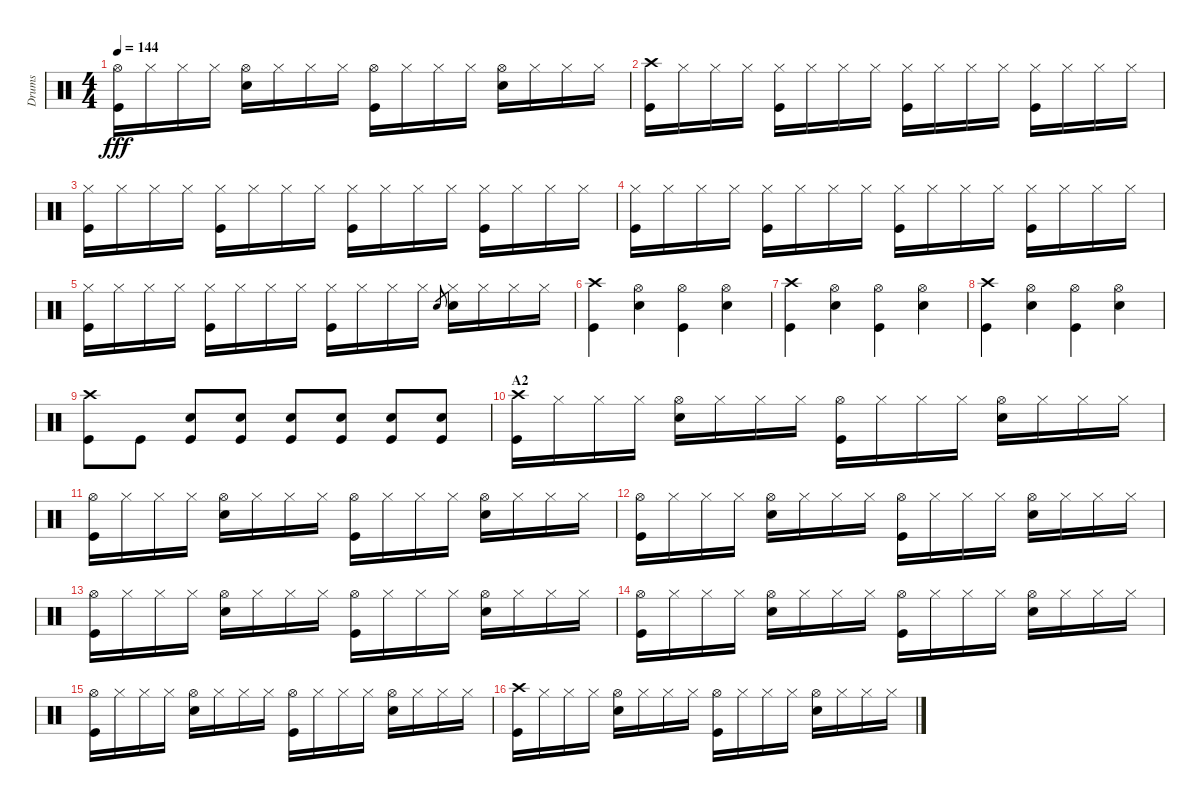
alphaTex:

\track ("Drums" "Drums") {instrument percussion}
\staff {score}
\articulation defaults
\ts (4 4)
\tempo 144
\clef neutral
\ks c
("Hi-Hat (open)" "Kick (hit)").16{dy fff} "Hi-Hat (closed)".16 "Hi-Hat (closed)".16 "Hi-Hat (closed)".16 ("Hi-Hat (open)" "Snare (hit) 2").16 "Hi-Hat (closed)".16 "Hi-Hat (closed)".16 "Hi-Hat (closed)".16 ("Hi-Hat (open)" "Kick (hit)").16 "Hi-Hat (closed)".16 "Hi-Hat (closed)".16 "Hi-Hat (closed)".16 ("Hi-Hat (open)" "Snare (hit) 2").16 "Hi-Hat (closed)".16 "Hi-Hat (closed)".16 "Hi-Hat (closed)".16 |
("Crash high (hit)" "Kick (hit)").16 "Hi-Hat (closed)".16 "Hi-Hat (closed)".16 "Hi-Hat (closed)".16 ("Hi-Hat (closed)" "Kick (hit)").16 "Hi-Hat (closed)".16 "Hi-Hat (closed)".16 "Hi-Hat (closed)".16 ("Hi-Hat (closed)" "Kick (hit)").16 "Hi-Hat (closed)".16 "Hi-Hat (closed)".16 "Hi-Hat (closed)".16 ("Hi-Hat (closed)" "Kick (hit)").16 "Hi-Hat (closed)".16 "Hi-Hat (closed)".16 "Hi-Hat (closed)".16 |
("Hi-Hat (closed)" "Kick (hit)").16 "Hi-Hat (closed)".16 "Hi-Hat (closed)".16 "Hi-Hat (closed)".16 ("Hi-Hat (closed)" "Kick (hit)").16 "Hi-Hat (closed)".16 "Hi-Hat (closed)".16 "Hi-Hat (closed)".16 ("Hi-Hat (closed)" "Kick (hit)").16 "Hi-Hat (closed)".16 "Hi-Hat (closed)".16 "Hi-Hat (closed)".16 ("Hi-Hat (closed)" "Kick (hit)").16 "Hi-Hat (closed)".16 "Hi-Hat (closed)".16 "Hi-Hat (closed)".16 |
("Hi-Hat (closed)" "Kick (hit)").16 "Hi-Hat (closed)".16 "Hi-Hat (closed)".16 "Hi-Hat (closed)".16 ("Hi-Hat (closed)" "Kick (hit)").16 "Hi-Hat (closed)".16 "Hi-Hat (closed)".16 "Hi-Hat (closed)".16 ("Hi-Hat (closed)" "Kick (hit)").16 "Hi-Hat (closed)".16 "Hi-Hat (closed)".16 "Hi-Hat (closed)".16 ("Hi-Hat (closed)" "Kick (hit)").16 "Hi-Hat (closed)".16 "Hi-Hat (closed)".16 "Hi-Hat (closed)".16 |
("Hi-Hat (closed)" "Kick (hit)").16 "Hi-Hat (closed)".16 "Hi-Hat (closed)".16 "Hi-Hat (closed)".16 ("Hi-Hat (closed)" "Kick (hit)").16 "Hi-Hat (closed)".16 "Hi-Hat (closed)".16 "Hi-Hat (closed)".16 ("Hi-Hat (closed)" "Kick (hit)").16 "Hi-Hat (closed)".16 "Hi-Hat (closed)".16 "Hi-Hat (closed)".16 "Snare (hit) 2".8{gr} ("Hi-Hat (closed)" "Snare (hit) 2").16 "Hi-Hat (closed)".16 "Hi-Hat (closed)".16 "Hi-Hat (closed)".16 |
("Crash high (hit)" "Kick (hit)").4 ("Hi-Hat (open)" "Snare (hit) 2").4 ("Hi-Hat (open)" "Kick (hit)").4 ("Hi-Hat (open)" "Snare (hit) 2").4 |
("Crash high (hit)" "Kick (hit)").4 ("Hi-Hat (open)" "Snare (hit) 2").4 ("Hi-Hat (open)" "Kick (hit)").4 ("Hi-Hat (open)" "Snare (hit) 2").4 |
("Crash high (hit)" "Kick (hit)").4 ("Hi-Hat (open)" "Snare (hit) 2").4 ("Hi-Hat (open)" "Kick (hit)").4 ("Hi-Hat (open)" "Snare (hit) 2").4 |
("Crash high (hit)" "Kick (hit)").8 "Kick (hit)".8 ("Snare (hit) 2" "Kick (hit)").8 ("Snare (hit) 2" "Kick (hit)").8 ("Snare (hit) 2" "Kick (hit)").8 ("Snare (hit) 2" "Kick (hit)").8 ("Snare (hit) 2" "Kick (hit)").8 ("Snare (hit) 2" "Kick (hit)").8 |
\section ("" "A2")
("Crash high (hit)" "Kick (hit)").16 "Hi-Hat (closed)".16 "Hi-Hat (closed)".16 "Hi-Hat (closed)".16 ("Hi-Hat (open)" "Snare (hit) 2").16 "Hi-Hat (closed)".16 "Hi-Hat (closed)".16 "Hi-Hat (closed)".16 ("Hi-Hat (open)" "Kick (hit)").16 "Hi-Hat (closed)".16 "Hi-Hat (closed)".16 "Hi-Hat (closed)".16 ("Hi-Hat (open)" "Snare (hit) 2").16 "Hi-Hat (closed)".16 "Hi-Hat (closed)".16 "Hi-Hat (closed)".16 |
("Hi-Hat (open)" "Kick (hit)").16 "Hi-Hat (closed)".16 "Hi-Hat (closed)".16 "Hi-Hat (closed)".16 ("Hi-Hat (open)" "Snare (hit) 2").16 "Hi-Hat (closed)".16 "Hi-Hat (closed)".16 "Hi-Hat (closed)".16 ("Hi-Hat (open)" "Kick (hit)").16 "Hi-Hat (closed)".16 "Hi-Hat (closed)".16 "Hi-Hat (closed)".16 ("Hi-Hat (open)" "Snare (hit) 2").16 "Hi-Hat (closed)".16 "Hi-Hat (closed)".16 "Hi-Hat (closed)".16 |
("Hi-Hat (open)" "Kick (hit)").16 "Hi-Hat (closed)".16 "Hi-Hat (closed)".16 "Hi-Hat (closed)".16 ("Hi-Hat (open)" "Snare (hit) 2").16 "Hi-Hat (closed)".16 "Hi-Hat (closed)".16 "Hi-Hat (closed)".16 ("Hi-Hat (open)" "Kick (hit)").16 "Hi-Hat (closed)".16 "Hi-Hat (closed)".16 "Hi-Hat (closed)".16 ("Hi-Hat (open)" "Snare (hit) 2").16 "Hi-Hat (closed)".16 "Hi-Hat (closed)".16 "Hi-Hat (closed)".16 |
("Hi-Hat (open)" "Kick (hit)").16 "Hi-Hat (closed)".16 "Hi-Hat (closed)".16 "Hi-Hat (closed)".16 ("Hi-Hat (open)" "Snare (hit) 2").16 "Hi-Hat (closed)".16 "Hi-Hat (closed)".16 "Hi-Hat (closed)".16 ("Hi-Hat (open)" "Kick (hit)").16 "Hi-Hat (closed)".16 "Hi-Hat (closed)".16 "Hi-Hat (closed)".16 ("Hi-Hat (open)" "Snare (hit) 2").16 "Hi-Hat (closed)".16 "Hi-Hat (closed)".16 "Hi-Hat (closed)".16 |
("Hi-Hat (open)" "Kick (hit)").16 "Hi-Hat (closed)".16 "Hi-Hat (closed)".16 "Hi-Hat (closed)".16 ("Hi-Hat (open)" "Snare (hit) 2").16 "Hi-Hat (closed)".16 "Hi-Hat (closed)".16 "Hi-Hat (closed)".16 ("Hi-Hat (open)" "Kick (hit)").16 "Hi-Hat (closed)".16 "Hi-Hat (closed)".16 "Hi-Hat (closed)".16 ("Hi-Hat (open)" "Snare (hit) 2").16 "Hi-Hat (closed)".16 "Hi-Hat (closed)".16 "Hi-Hat (closed)".16 |
("Hi-Hat (open)" "Kick (hit)").16 "Hi-Hat (closed)".16 "Hi-Hat (closed)".16 "Hi-Hat (closed)".16 ("Hi-Hat (open)" "Snare (hit) 2").16 "Hi-Hat (closed)".16 "Hi-Hat (closed)".16 "Hi-Hat (closed)".16 ("Hi-Hat (open)" "Kick (hit)").16 "Hi-Hat (closed)".16 "Hi-Hat (closed)".16 "Hi-Hat (closed)".16 ("Hi-Hat (open)" "Snare (hit) 2").16 "Hi-Hat (closed)".16 "Hi-Hat (closed)".16 "Hi-Hat (closed)".16 |
("Crash high (hit)" "Kick (hit)").16 "Hi-Hat (closed)".16 "Hi-Hat (closed)".16 "Hi-Hat (closed)".16 ("Hi-Hat (open)" "Snare (hit) 2").16 "Hi-Hat (closed)".16 "Hi-Hat (closed)".16 "Hi-Hat (closed)".16 ("Hi-Hat (open)" "Kick (hit)").16 "Hi-Hat (closed)".16 "Hi-Hat (closed)".16 "Hi-Hat (closed)".16 ("Hi-Hat (open)" "Snare (hit) 2").16 "Hi-Hat (closed)".16 "Hi-Hat (closed)".16 "Hi-Hat (closed)".16
